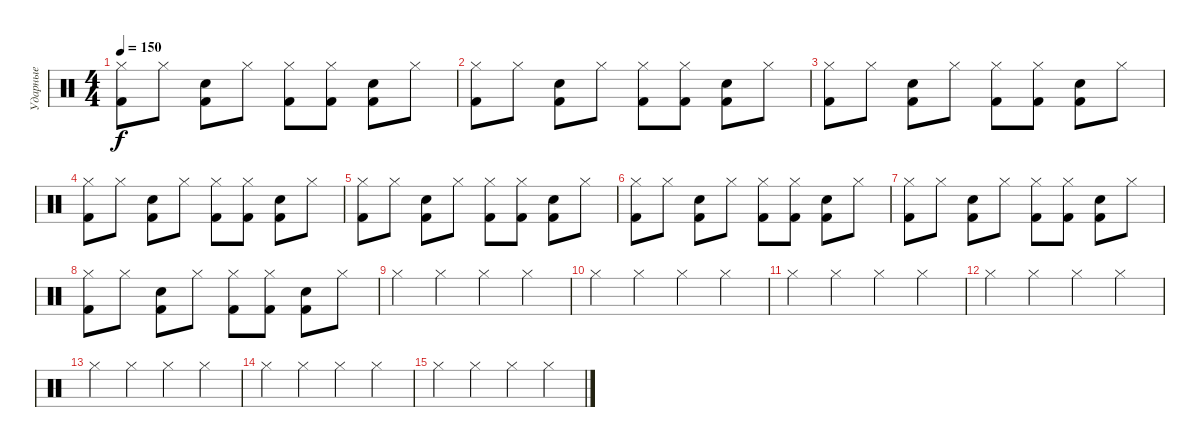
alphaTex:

\track ("Ударные" "Ударные") {instrument percussion}
\staff {score}
\articulation defaults
\ts (4 4)
\tempo 150
\clef neutral
\ks c
("Kick (hit) 2" "Hi-Hat (closed)").8{dy f} "Hi-Hat (closed)".8 ("Kick (hit) 2" "Snare (hit) 2").8 "Hi-Hat (closed)".8 ("Kick (hit) 2" "Hi-Hat (closed)").8 ("Kick (hit) 2" "Hi-Hat (closed)").8 ("Kick (hit) 2" "Snare (hit) 2").8 "Hi-Hat (closed)".8 |
("Kick (hit) 2" "Hi-Hat (closed)").8 "Hi-Hat (closed)".8 ("Kick (hit) 2" "Snare (hit) 2").8 "Hi-Hat (closed)".8 ("Kick (hit) 2" "Hi-Hat (closed)").8 ("Kick (hit) 2" "Hi-Hat (closed)").8 ("Kick (hit) 2" "Snare (hit) 2").8 "Hi-Hat (closed)".8 |
("Kick (hit) 2" "Hi-Hat (closed)").8 "Hi-Hat (closed)".8 ("Kick (hit) 2" "Snare (hit) 2").8 "Hi-Hat (closed)".8 ("Kick (hit) 2" "Hi-Hat (closed)").8 ("Kick (hit) 2" "Hi-Hat (closed)").8 ("Kick (hit) 2" "Snare (hit) 2").8 "Hi-Hat (closed)".8 |
("Kick (hit) 2" "Hi-Hat (closed)").8 "Hi-Hat (closed)".8 ("Kick (hit) 2" "Snare (hit) 2").8 "Hi-Hat (closed)".8 ("Kick (hit) 2" "Hi-Hat (closed)").8 ("Kick (hit) 2" "Hi-Hat (closed)").8 ("Kick (hit) 2" "Snare (hit) 2").8 "Hi-Hat (closed)".8 |
("Kick (hit) 2" "Hi-Hat (closed)").8 "Hi-Hat (closed)".8 ("Kick (hit) 2" "Snare (hit) 2").8 "Hi-Hat (closed)".8 ("Kick (hit) 2" "Hi-Hat (closed)").8 ("Kick (hit) 2" "Hi-Hat (closed)").8 ("Kick (hit) 2" "Snare (hit) 2").8 "Hi-Hat (closed)".8 |
("Kick (hit) 2" "Hi-Hat (closed)").8 "Hi-Hat (closed)".8 ("Kick (hit) 2" "Snare (hit) 2").8 "Hi-Hat (closed)".8 ("Kick (hit) 2" "Hi-Hat (closed)").8 ("Kick (hit) 2" "Hi-Hat (closed)").8 ("Kick (hit) 2" "Snare (hit) 2").8 "Hi-Hat (closed)".8 |
("Kick (hit) 2" "Hi-Hat (closed)").8 "Hi-Hat (closed)".8 ("Kick (hit) 2" "Snare (hit) 2").8 "Hi-Hat (closed)".8 ("Kick (hit) 2" "Hi-Hat (closed)").8 ("Kick (hit) 2" "Hi-Hat (closed)").8 ("Kick (hit) 2" "Snare (hit) 2").8 "Hi-Hat (closed)".8 |
("Kick (hit) 2" "Hi-Hat (closed)").8 "Hi-Hat (closed)".8 ("Kick (hit) 2" "Snare (hit) 2").8 "Hi-Hat (closed)".8 ("Kick (hit) 2" "Hi-Hat (closed)").8 ("Kick (hit) 2" "Hi-Hat (closed)").8 ("Kick (hit) 2" "Snare (hit) 2").8 "Hi-Hat (closed)".8 |
"Hi-Hat (closed)".4 "Hi-Hat (closed)".4 "Hi-Hat (closed)".4 "Hi-Hat (closed)".4 |
"Hi-Hat (closed)".4 "Hi-Hat (closed)".4 "Hi-Hat (closed)".4 "Hi-Hat (closed)".4 |
"Hi-Hat (closed)".4 "Hi-Hat (closed)".4 "Hi-Hat (closed)".4 "Hi-Hat (closed)".4 |
"Hi-Hat (closed)".4 "Hi-Hat (closed)".4 "Hi-Hat (closed)".4 "Hi-Hat (closed)".4 |
"Hi-Hat (closed)".4 "Hi-Hat (closed)".4 "Hi-Hat (closed)".4 "Hi-Hat (closed)".4 |
"Hi-Hat (closed)".4 "Hi-Hat (closed)".4 "Hi-Hat (closed)".4 "Hi-Hat (closed)".4 |
"Hi-Hat (closed)".4 "Hi-Hat (closed)".4 "Hi-Hat (closed)".4 "Hi-Hat (closed)".4
